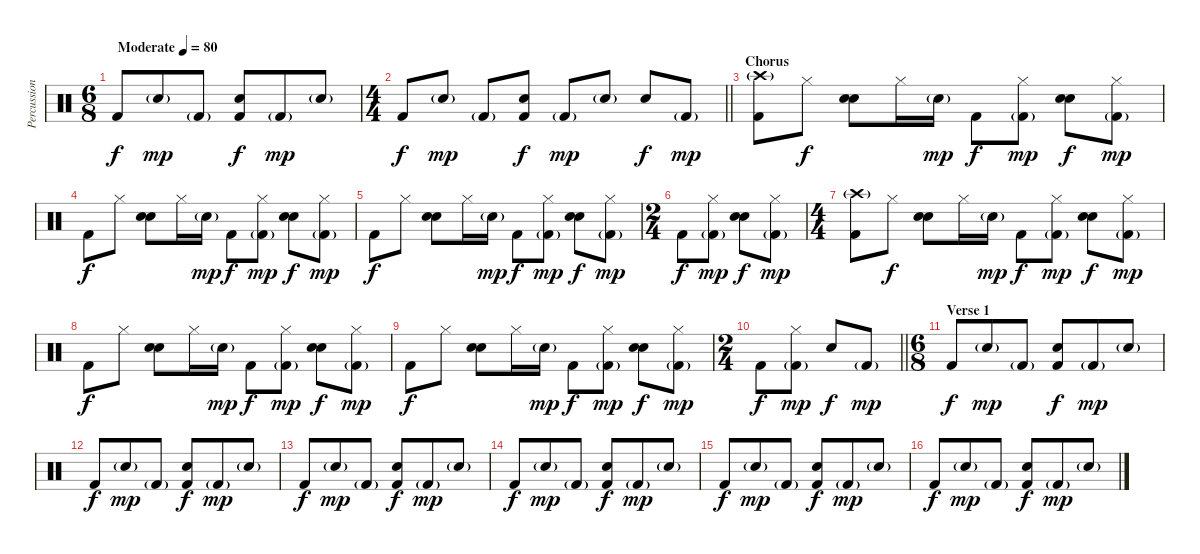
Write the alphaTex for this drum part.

\track ("Percussion" "Percussion") {instrument percussion}
\staff {score}
\articulation defaults
\ts (6 8)
\tempo (80 "Moderate")
\clef neutral
\ks c "Kick (hit) 2".8{dy f} "Snare (hit) 2"{g}.8{dy mp} "Kick (hit) 2"{g}.8
("Snare (hit) 2" "Kick (hit) 2").8{dy f} "Kick (hit) 2"{g}.8{dy mp} "Snare (hit) 2"{g}.8 |
\ts (4 4)
\barLineRight lightlight "Kick (hit) 2".8{dy f} "Snare (hit) 2"{g}.8{dy mp} "Kick (hit) 2"{g}.8
("Snare (hit) 2" "Kick (hit) 2").8{dy f} "Kick (hit) 2"{g}.8{dy mp} "Snare (hit) 2"{g}.8 "Snare (hit) 2".8{dy f} "Kick (hit) 2"{g}.8{dy mp} |
\section ("" "Chorus")
("Crash high (hit)"{g} "Kick (hit) 2").8 "Hi-Hat (closed)".8{dy f} ("Snare (hit) 2" "Hand Clap (hit)").8 "Hi-Hat (closed)".16 "Snare (hit) 2"{g}.16{dy mp} "Kick (hit) 2".8{dy f} ("Hi-Hat (closed)" "Kick (hit) 2"{g}).8{dy mp} ("Snare (hit) 2" "Hand Clap (hit)").8{dy f} ("Hi-Hat (closed)" "Kick (hit) 2"{g}).8{dy mp} |
"Kick (hit) 2".8{dy f} "Hi-Hat (closed)".8 ("Snare (hit) 2" "Hand Clap (hit)").8 "Hi-Hat (closed)".16 "Snare (hit) 2"{g}.16{dy mp} "Kick (hit) 2".8{dy f} ("Hi-Hat (closed)" "Kick (hit) 2"{g}).8{dy mp} ("Snare (hit) 2" "Hand Clap (hit)").8{dy f} ("Hi-Hat (closed)" "Kick (hit) 2"{g}).8{dy mp} |
"Kick (hit) 2".8{dy f} "Hi-Hat (closed)".8 ("Snare (hit) 2" "Hand Clap (hit)").8 "Hi-Hat (closed)".16 "Snare (hit) 2"{g}.16{dy mp} "Kick (hit) 2".8{dy f} ("Hi-Hat (closed)" "Kick (hit) 2"{g}).8{dy mp} ("Snare (hit) 2" "Hand Clap (hit)").8{dy f} ("Hi-Hat (closed)" "Kick (hit) 2"{g}).8{dy mp} |
\ts (2 4)
"Kick (hit) 2".8{dy f} ("Hi-Hat (closed)" "Kick (hit) 2"{g}).8{dy mp} ("Snare (hit) 2" "Hand Clap (hit)").8{dy f} ("Hi-Hat (closed)" "Kick (hit) 2"{g}).8{dy mp} |
\ts (4 4)
("Crash high (hit)"{g} "Kick (hit) 2").8 "Hi-Hat (closed)".8{dy f} ("Snare (hit) 2" "Hand Clap (hit)").8 "Hi-Hat (closed)".16 "Snare (hit) 2"{g}.16{dy mp} "Kick (hit) 2".8{dy f} ("Hi-Hat (closed)" "Kick (hit) 2"{g}).8{dy mp} ("Snare (hit) 2" "Hand Clap (hit)").8{dy f} ("Hi-Hat (closed)" "Kick (hit) 2"{g}).8{dy mp} |
"Kick (hit) 2".8{dy f} "Hi-Hat (closed)".8 ("Snare (hit) 2" "Hand Clap (hit)").8 "Hi-Hat (closed)".16 "Snare (hit) 2"{g}.16{dy mp} "Kick (hit) 2".8{dy f} ("Hi-Hat (closed)" "Kick (hit) 2"{g}).8{dy mp} ("Snare (hit) 2" "Hand Clap (hit)").8{dy f} ("Hi-Hat (closed)" "Kick (hit) 2"{g}).8{dy mp} |
"Kick (hit) 2".8{dy f} "Hi-Hat (closed)".8 ("Snare (hit) 2" "Hand Clap (hit)").8 "Hi-Hat (closed)".16 "Snare (hit) 2"{g}.16{dy mp} "Kick (hit) 2".8{dy f} ("Hi-Hat (closed)" "Kick (hit) 2"{g}).8{dy mp} ("Snare (hit) 2" "Hand Clap (hit)").8{dy f} ("Hi-Hat (closed)" "Kick (hit) 2"{g}).8{dy mp} |
\ts (2 4)
\barLineRight lightlight "Kick (hit) 2".8{dy f}
("Hi-Hat (closed)" "Kick (hit) 2"{g}).8{dy mp} "Snare (hit) 2".8{dy f} "Kick (hit) 2"{g}.8{dy mp} |
\ts (6 8)
\section ("" "Verse 1")
"Kick (hit) 2".8{dy f} "Snare (hit) 2"{g}.8{dy mp} "Kick (hit) 2"{g}.8 ("Snare (hit) 2" "Kick (hit) 2").8{dy f} "Kick (hit) 2"{g}.8{dy mp} "Snare (hit) 2"{g}.8 |
"Kick (hit) 2".8{dy f} "Snare (hit) 2"{g}.8{dy mp} "Kick (hit) 2"{g}.8 ("Snare (hit) 2" "Kick (hit) 2").8{dy f} "Kick (hit) 2"{g}.8{dy mp} "Snare (hit) 2"{g}.8 |
"Kick (hit) 2".8{dy f} "Snare (hit) 2"{g}.8{dy mp} "Kick (hit) 2"{g}.8 ("Snare (hit) 2" "Kick (hit) 2").8{dy f} "Kick (hit) 2"{g}.8{dy mp} "Snare (hit) 2"{g}.8 |
"Kick (hit) 2".8{dy f} "Snare (hit) 2"{g}.8{dy mp} "Kick (hit) 2"{g}.8 ("Snare (hit) 2" "Kick (hit) 2").8{dy f} "Kick (hit) 2"{g}.8{dy mp} "Snare (hit) 2"{g}.8 |
"Kick (hit) 2".8{dy f} "Snare (hit) 2"{g}.8{dy mp} "Kick (hit) 2"{g}.8 ("Snare (hit) 2" "Kick (hit) 2").8{dy f} "Kick (hit) 2"{g}.8{dy mp} "Snare (hit) 2"{g}.8 |
"Kick (hit) 2".8{dy f} "Snare (hit) 2"{g}.8{dy mp} "Kick (hit) 2"{g}.8 ("Snare (hit) 2" "Kick (hit) 2").8{dy f} "Kick (hit) 2"{g}.8{dy mp} "Snare (hit) 2"{g}.8
